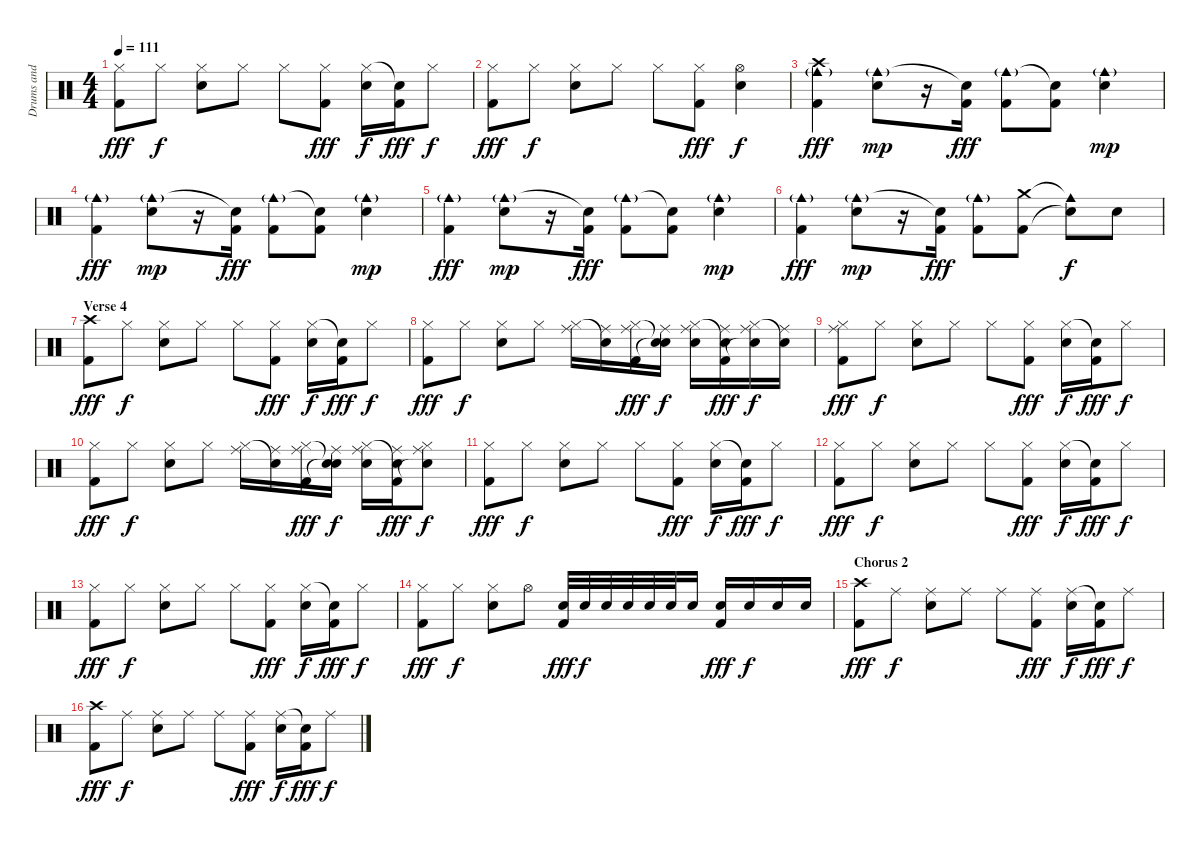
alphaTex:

\track ("Drums and Percussion" "Drums and ") {instrument percussion}
\staff {score}
\articulation defaults
\ts (4 4)
\tempo 111
\clef neutral
\ks c
("Hi-Hat (closed)" "Kick (hit) 2").8{dy fff} "Hi-Hat (closed)".8{dy f} ("Hi-Hat (closed)" "Snare (hit) 2").8 "Hi-Hat (closed)".8 "Hi-Hat (closed)".8 ("Hi-Hat (closed)" "Kick (hit) 2").8{dy fff} ("Hi-Hat (closed)" "Snare (hit) 2").16{dy f} ("Snare (hit)"{t} "Kick (hit) 2").16{dy fff} "Hi-Hat (closed)".8{dy f} |
("Hi-Hat (closed)" "Kick (hit) 2").8{dy fff} "Hi-Hat (closed)".8{dy f} ("Hi-Hat (closed)" "Snare (hit) 2").8 "Hi-Hat (closed)".8 "Hi-Hat (closed)".8 ("Hi-Hat (closed)" "Kick (hit) 2").8{dy fff} ("Hi-Hat (open)" "Snare (hit) 2").4{dy f} |
("Crash high (hit)" "Cowbell medium (hit)"{g} "Kick (hit) 2").4{dy fff} ("Cowbell medium (hit)"{g} "Snare (hit) 2").8{dy mp} r.16 ("Snare (hit)"{t} "Kick (hit) 2").16{dy fff} ("Cowbell medium (hit)"{g} "Kick (hit) 2").8 ("Snare (hit)"{t} "Kick (hit) 2").8 ("Cowbell medium (hit)"{g} "Snare (hit) 2").4{dy mp} |
("Cowbell medium (hit)"{g} "Kick (hit) 2").4{dy fff} ("Cowbell medium (hit)"{g} "Snare (hit) 2").8{dy mp} r.16 ("Snare (hit)"{t} "Kick (hit) 2").16{dy fff} ("Cowbell medium (hit)"{g} "Kick (hit) 2").8 ("Snare (hit)"{t} "Kick (hit) 2").8 ("Cowbell medium (hit)"{g} "Snare (hit) 2").4{dy mp} |
("Cowbell medium (hit)"{g} "Kick (hit) 2").4{dy fff} ("Cowbell medium (hit)"{g} "Snare (hit) 2").8{dy mp} r.16 ("Snare (hit)"{t} "Kick (hit) 2").16{dy fff} ("Cowbell medium (hit)"{g} "Kick (hit) 2").8 ("Snare (hit)"{t} "Kick (hit) 2").8 ("Cowbell medium (hit)"{g} "Snare (hit) 2").4{dy mp} |
("Cowbell medium (hit)"{g} "Kick (hit) 2").4{dy fff} ("Cowbell medium (hit)"{g} "Snare (hit) 2").8{dy mp} r.16 ("Snare (hit)"{t} "Kick (hit) 2").16{dy fff} ("Cowbell medium (hit)"{g} "Kick (hit) 2").8 ("Crash medium (hit)" "Kick (hit) 2").8 ("Cowbell medium (hit)"{t} "Snare (hit)"{t}).8{dy f} "Snare (hit) 2".8 |
\section ("" "Verse 4")
("Crash high (hit)" "Kick (hit) 2").8{dy fff} "Hi-Hat (closed)".8{dy f} ("Hi-Hat (closed)" "Snare (hit) 2").8 "Hi-Hat (closed)".8 "Hi-Hat (closed)".8 ("Hi-Hat (closed)" "Kick (hit) 2").8{dy fff} ("Hi-Hat (closed)" "Snare (hit) 2").16{dy f} ("Snare (hit)"{t} "Kick (hit) 2").16{dy fff} "Hi-Hat (closed)".8{dy f} |
("Hi-Hat (closed)" "Kick (hit) 2").8{dy fff} "Hi-Hat (closed)".8{dy f} ("Hi-Hat (closed)" "Snare (hit) 2").8 "Hi-Hat (closed)".8 ("Hi-Hat (closed)" "Ride (middle)").16 ("Snare (hit)"{t} "Ride (middle)").16 ("Hi-Hat (closed)" "Ride (middle)" "Kick (hit) 2").16{dy fff} ("Snare (hit)"{t} "Ride (middle)" "Snare (hit)"{t}).16{dy f} ("Hi-Hat (closed)" "Ride (middle)" "Snare (hit) 2").16 ("Snare (hit)"{t} "Ride (middle)" "Kick (hit) 2").16{dy fff} ("Hi-Hat (closed)" "Ride (middle)" "Snare (hit)"{t}).16{dy f} ("Snare (hit)"{t} "Ride (middle)").16 |
("Hi-Hat (closed)" "Ride (middle)" "Kick (hit) 2").8{dy fff} "Hi-Hat (closed)".8{dy f} ("Hi-Hat (closed)" "Snare (hit) 2").8 "Hi-Hat (closed)".8 "Hi-Hat (closed)".8 ("Hi-Hat (closed)" "Kick (hit) 2").8{dy fff} ("Hi-Hat (closed)" "Snare (hit) 2").16{dy f} ("Snare (hit)"{t} "Kick (hit) 2").16{dy fff} "Hi-Hat (closed)".8{dy f} |
("Hi-Hat (closed)" "Kick (hit) 2").8{dy fff} "Hi-Hat (closed)".8{dy f} ("Hi-Hat (closed)" "Snare (hit) 2").8 "Hi-Hat (closed)".8 ("Hi-Hat (closed)" "Ride (middle)").16 ("Snare (hit)"{t} "Ride (middle)").16 ("Hi-Hat (closed)" "Ride (middle)" "Kick (hit) 2").16{dy fff} ("Snare (hit)"{t} "Ride (middle)" "Snare (hit)"{t}).16{dy f} ("Hi-Hat (closed)" "Ride (middle)" "Snare (hit) 2").16 ("Snare (hit)"{t} "Ride (middle)" "Kick (hit) 2").16{dy fff} ("Hi-Hat (closed)" "Ride (middle)" "Snare (hit)"{t}).8{dy f} |
("Hi-Hat (closed)" "Kick (hit) 2").8{dy fff} "Hi-Hat (closed)".8{dy f} ("Hi-Hat (closed)" "Snare (hit) 2").8 "Hi-Hat (closed)".8 "Hi-Hat (closed)".8 ("Hi-Hat (closed)" "Kick (hit) 2").8{dy fff} ("Hi-Hat (closed)" "Snare (hit) 2").16{dy f} ("Snare (hit)"{t} "Kick (hit) 2").16{dy fff} "Hi-Hat (closed)".8{dy f} |
("Hi-Hat (closed)" "Kick (hit) 2").8{dy fff} "Hi-Hat (closed)".8{dy f} ("Hi-Hat (closed)" "Snare (hit) 2").8 "Hi-Hat (closed)".8 "Hi-Hat (closed)".8 ("Hi-Hat (closed)" "Kick (hit) 2").8{dy fff} ("Hi-Hat (closed)" "Snare (hit) 2").16{dy f} ("Snare (hit)"{t} "Kick (hit) 2").16{dy fff} "Hi-Hat (closed)".8{dy f} |
("Hi-Hat (closed)" "Kick (hit) 2").8{dy fff} "Hi-Hat (closed)".8{dy f} ("Hi-Hat (closed)" "Snare (hit) 2").8 "Hi-Hat (closed)".8 "Hi-Hat (closed)".8 ("Hi-Hat (closed)" "Kick (hit) 2").8{dy fff} ("Hi-Hat (closed)" "Snare (hit) 2").16{dy f} ("Snare (hit)"{t} "Kick (hit) 2").16{dy fff} "Hi-Hat (closed)".8{dy f} |
("Hi-Hat (closed)" "Kick (hit) 2").8{dy fff} "Hi-Hat (closed)".8{dy f} ("Hi-Hat (closed)" "Snare (hit) 2").8 "Hi-Hat (open)".8 ("Snare (hit) 2" "Kick (hit) 2").32{dy fff} "Snare (hit) 2".32{dy f} "Snare (hit) 2".32 "Snare (hit) 2".32 "Snare (hit) 2".32 "Snare (hit) 2".32 "Snare (hit) 2".16 ("Snare (hit) 2" "Kick (hit) 2").16{dy fff} "Snare (hit) 2".16{dy f} "Snare (hit) 2".16 "Snare (hit) 2".16 |
\section ("" "Chorus 2")
("Crash high (hit)" "Kick (hit) 2").8{dy fff} "Ride (middle)".8{dy f} ("Ride (middle)" "Snare (hit) 2").8 "Ride (middle)".8 "Ride (middle)".8 ("Ride (middle)" "Kick (hit) 2").8{dy fff} ("Ride (middle)" "Snare (hit) 2").16{dy f} ("Snare (hit)"{t} "Kick (hit) 2").16{dy fff} "Ride (middle)".8{dy f} |
("Crash high (hit)" "Kick (hit) 2").8{dy fff} "Ride (middle)".8{dy f} ("Ride (middle)" "Snare (hit) 2").8 "Ride (middle)".8 "Ride (middle)".8 ("Ride (middle)" "Kick (hit) 2").8{dy fff} ("Ride (middle)" "Snare (hit) 2").16{dy f} ("Snare (hit)"{t} "Kick (hit) 2").16{dy fff} "Ride (middle)".8{dy f}
